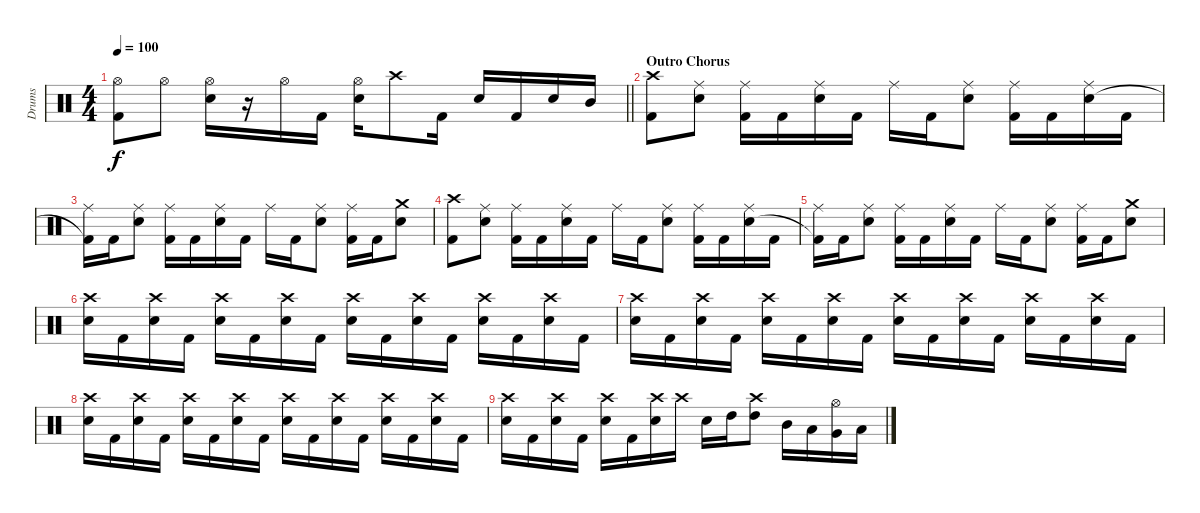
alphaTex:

\track ("Drums" "Drums") {instrument percussion}
\staff {score}
\articulation defaults
\ts (4 4)
\tempo 100
\clef neutral
\barLineRight lightlight
\ks c
("Hi-Hat (open)" "Kick (hit) 2").8{dy f} "Hi-Hat (open)".8 ("Hi-Hat (open)" "Snare (hit) 2").16 r.16 "Hi-Hat (open)".16 "Kick (hit) 2".16 ("Hi-Hat (open)" "Snare (hit) 2").16 "Crash high (hit)".8 "Kick (hit) 2".16 "Snare (hit) 2".16 "Kick (hit) 2".16 "Snare (hit) 2".16 "Mid Tom (hit)".16 |
\section ("" "Outro Chorus")
("Crash high (hit)" "Kick (hit) 2").8 ("Ride (middle)" "Snare (hit) 2").8 ("Ride (middle)" "Kick (hit) 2").16 "Kick (hit) 2".16 ("Ride (middle)" "Snare (hit) 2").16 "Kick (hit) 2".16 "Ride (middle)".16 "Kick (hit) 2".16 ("Ride (middle)" "Snare (hit) 2").8 ("Ride (middle)" "Kick (hit) 2").16 "Kick (hit) 2".16 ("Ride (middle)" "Snare (hit) 2").16 "Kick (hit) 2".16 |
("Ride (middle)" "Kick (hit) 2"{t}).16 "Kick (hit) 2".16 ("Ride (middle)" "Snare (hit) 2").8 ("Ride (middle)" "Kick (hit) 2").16 "Kick (hit) 2".16 ("Ride (middle)" "Snare (hit) 2").16 "Kick (hit) 2".16 "Ride (middle)".16 "Kick (hit) 2".16 ("Ride (middle)" "Snare (hit) 2").8 ("Ride (middle)" "Kick (hit) 2").16 "Kick (hit) 2".16 ("Crash medium (hit)" "Snare (hit) 2").8 |
("Crash high (hit)" "Kick (hit) 2").8 ("Ride (middle)" "Snare (hit) 2").8 ("Ride (middle)" "Kick (hit) 2").16 "Kick (hit) 2".16 ("Ride (middle)" "Snare (hit) 2").16 "Kick (hit) 2".16 "Ride (middle)".16 "Kick (hit) 2".16 ("Ride (middle)" "Snare (hit) 2").8 ("Ride (middle)" "Kick (hit) 2").16 "Kick (hit) 2".16 ("Ride (middle)" "Snare (hit) 2").16 "Kick (hit) 2".16 |
("Ride (middle)" "Kick (hit) 2"{t}).16 "Kick (hit) 2".16 ("Ride (middle)" "Snare (hit) 2").8 ("Ride (middle)" "Kick (hit) 2").16 "Kick (hit) 2".16 ("Ride (middle)" "Snare (hit) 2").16 "Kick (hit) 2".16 "Ride (middle)".16 "Kick (hit) 2".16 ("Ride (middle)" "Snare (hit) 2").8 ("Ride (middle)" "Kick (hit) 2").16 "Kick (hit) 2".16 ("Crash medium (hit)" "Snare (hit) 2").8 |
("Crash high (hit)" "Snare (hit) 2").16 "Kick (hit) 2".16 ("Crash high (hit)" "Snare (hit) 2").16 "Kick (hit) 2".16 ("Crash high (hit)" "Snare (hit) 2").16 "Kick (hit) 2".16 ("Crash high (hit)" "Snare (hit) 2").16 "Kick (hit) 2".16 ("Crash high (hit)" "Snare (hit) 2").16 "Kick (hit) 2".16 ("Crash high (hit)" "Snare (hit) 2").16 "Kick (hit) 2".16 ("Crash high (hit)" "Snare (hit) 2").16 "Kick (hit) 2".16 ("Crash high (hit)" "Snare (hit) 2").16 "Kick (hit) 2".16 |
("Crash high (hit)" "Snare (hit) 2").16 "Kick (hit) 2".16 ("Crash high (hit)" "Snare (hit) 2").16 "Kick (hit) 2".16 ("Crash high (hit)" "Snare (hit) 2").16 "Kick (hit) 2".16 ("Crash high (hit)" "Snare (hit) 2").16 "Kick (hit) 2".16 ("Crash high (hit)" "Snare (hit) 2").16 "Kick (hit) 2".16 ("Crash high (hit)" "Snare (hit) 2").16 "Kick (hit) 2".16 ("Crash high (hit)" "Snare (hit) 2").16 "Kick (hit) 2".16 ("Crash high (hit)" "Snare (hit) 2").16 "Kick (hit) 2".16 |
("Crash high (hit)" "Snare (hit) 2").16 "Kick (hit) 2".16 ("Crash high (hit)" "Snare (hit) 2").16 "Kick (hit) 2".16 ("Crash high (hit)" "Snare (hit) 2").16 "Kick (hit) 2".16 ("Crash high (hit)" "Snare (hit) 2").16 "Kick (hit) 2".16 ("Crash high (hit)" "Snare (hit) 2").16 "Kick (hit) 2".16 ("Crash high (hit)" "Snare (hit) 2").16 "Kick (hit) 2".16 ("Crash high (hit)" "Snare (hit) 2").16 "Kick (hit) 2".16 ("Crash high (hit)" "Snare (hit) 2").16 "Kick (hit) 2".16 |
("Crash high (hit)" "Snare (hit) 2").16 "Kick (hit) 2".16 ("Crash high (hit)" "Snare (hit) 2").16 "Kick (hit) 2".16 ("Crash high (hit)" "Snare (hit) 2").16 "Kick (hit) 2".16 ("Crash high (hit)" "Snare (hit) 2").16 "Crash high (hit)".16 "Snare (hit) 2".16 "High Tom (hit)".16 ("Crash high (hit)" "High Tom (hit)").8 "Mid Tom (hit)".16 "Low Tom (hit)".16 ("Hi-Hat (open)" "Very Low Tom (hit)").16 "Low Floor Tom (hit)".16
